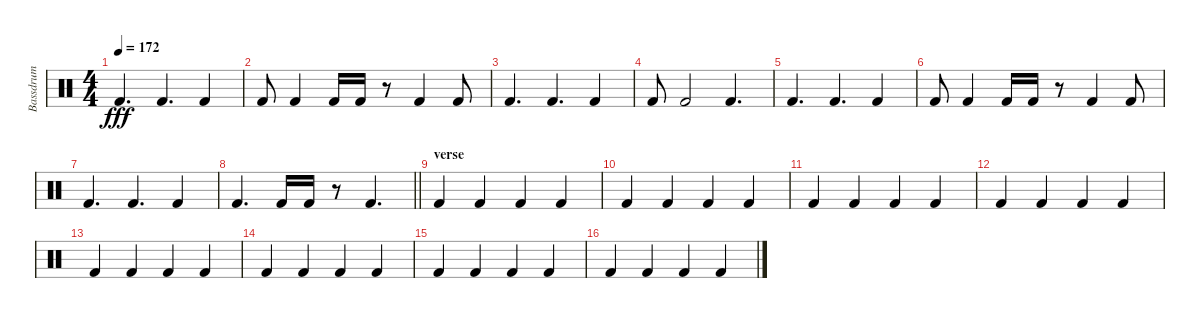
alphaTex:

\track ("Bassdrum" "Bassdrum") {instrument percussion}
\staff {score}
\articulation defaults
\ts (4 4)
\tempo 172
\clef neutral
\ks c "Kick (hit) 2".4{d dy fff} "Kick (hit) 2".4{d} "Kick (hit) 2".4
|
"Kick (hit) 2".8 "Kick (hit) 2".4 "Kick (hit) 2".16 "Kick (hit) 2".16 r.8 "Kick (hit) 2".4 "Kick (hit) 2".8 |
"Kick (hit) 2".4{d} "Kick (hit) 2".4{d} "Kick (hit) 2".4 |
"Kick (hit) 2".8 "Kick (hit) 2".2 "Kick (hit) 2".4{d} |
"Kick (hit) 2".4{d} "Kick (hit) 2".4{d} "Kick (hit) 2".4 |
"Kick (hit) 2".8 "Kick (hit) 2".4 "Kick (hit) 2".16 "Kick (hit) 2".16 r.8 "Kick (hit) 2".4 "Kick (hit) 2".8 |
"Kick (hit) 2".4{d} "Kick (hit) 2".4{d} "Kick (hit) 2".4 |
\barLineRight lightlight "Kick (hit) 2".4{d} "Kick (hit) 2".16 "Kick (hit) 2".16
r.8 "Kick (hit) 2".4{d} |
\section ("" "verse")
"Kick (hit) 2".4 "Kick (hit) 2".4 "Kick (hit) 2".4 "Kick (hit) 2".4 |
"Kick (hit) 2".4 "Kick (hit) 2".4 "Kick (hit) 2".4 "Kick (hit) 2".4 |
"Kick (hit) 2".4 "Kick (hit) 2".4 "Kick (hit) 2".4 "Kick (hit) 2".4 |
"Kick (hit) 2".4 "Kick (hit) 2".4 "Kick (hit) 2".4 "Kick (hit) 2".4 |
"Kick (hit) 2".4 "Kick (hit) 2".4 "Kick (hit) 2".4 "Kick (hit) 2".4 |
"Kick (hit) 2".4 "Kick (hit) 2".4 "Kick (hit) 2".4 "Kick (hit) 2".4 |
"Kick (hit) 2".4 "Kick (hit) 2".4 "Kick (hit) 2".4 "Kick (hit) 2".4 |
"Kick (hit) 2".4 "Kick (hit) 2".4 "Kick (hit) 2".4 "Kick (hit) 2".4
